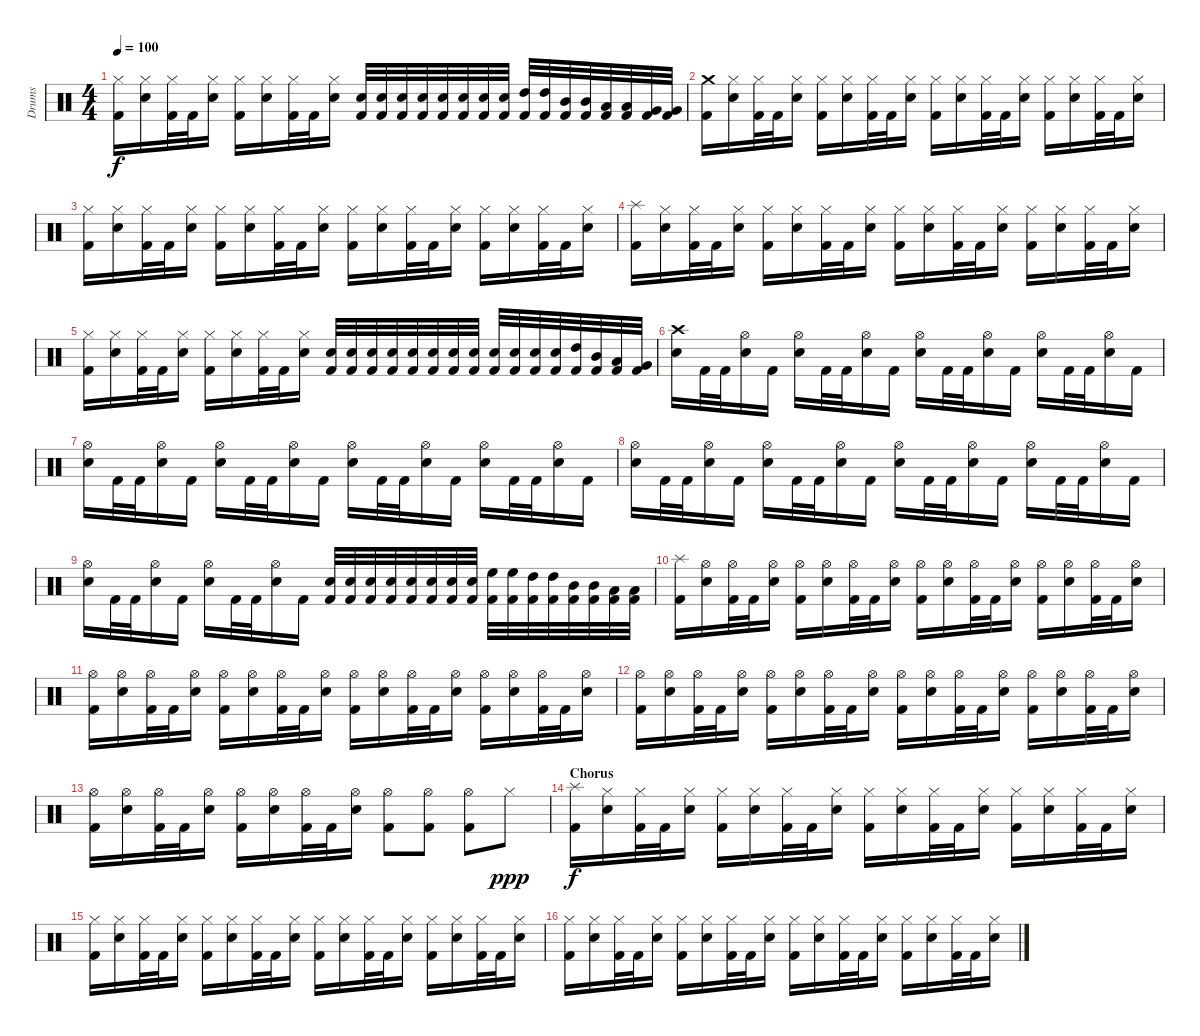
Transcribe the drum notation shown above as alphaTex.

\track ("Drums" "Drums") {instrument percussion}
\staff {score}
\articulation defaults
\ts (4 4)
\tempo 100
\clef neutral
\ks c
("Kick (hit) 2" "Hi-Hat (closed)").16{dy f} ("Electric Snare (hit)" "Hi-Hat (closed)").16 ("Kick (hit) 2" "Hi-Hat (closed)").32 "Kick (hit) 2".32 ("Electric Snare (hit)" "Hi-Hat (closed)").16 ("Kick (hit) 2" "Hi-Hat (closed)").16 ("Electric Snare (hit)" "Hi-Hat (closed)").16 ("Kick (hit) 2" "Hi-Hat (closed)").32 "Kick (hit) 2".32 ("Electric Snare (hit)" "Hi-Hat (closed)").16 ("Kick (hit) 2" "Electric Snare (hit)").32 ("Kick (hit) 2" "Electric Snare (hit)").32 ("Kick (hit) 2" "Electric Snare (hit)").32 ("Kick (hit) 2" "Electric Snare (hit)").32 ("Kick (hit) 2" "Electric Snare (hit)").32 ("Kick (hit) 2" "Electric Snare (hit)").32 ("Kick (hit) 2" "Electric Snare (hit)").32 ("Kick (hit) 2" "Electric Snare (hit)").32 ("Kick (hit) 2" "High Tom (hit)").32 ("Kick (hit) 2" "High Tom (hit)").32 ("Kick (hit) 2" "Mid Tom (hit)").32 ("Kick (hit) 2" "Mid Tom (hit)").32 ("Kick (hit) 2" "Low Tom (hit)").32 ("Kick (hit) 2" "Low Tom (hit)").32 ("Kick (hit) 2" "Very Low Tom (hit)").32 ("Kick (hit) 2" "Very Low Tom (hit)").32 |
("Kick (hit) 2" "Crash medium (hit)").16 ("Electric Snare (hit)" "Hi-Hat (closed)").16 ("Kick (hit) 2" "Hi-Hat (closed)").32 "Kick (hit) 2".32 ("Electric Snare (hit)" "Hi-Hat (closed)").16 ("Kick (hit) 2" "Hi-Hat (closed)").16 ("Electric Snare (hit)" "Hi-Hat (closed)").16 ("Kick (hit) 2" "Hi-Hat (closed)").32 "Kick (hit) 2".32 ("Electric Snare (hit)" "Hi-Hat (closed)").16 ("Kick (hit) 2" "Hi-Hat (closed)").16 ("Electric Snare (hit)" "Hi-Hat (closed)").16 ("Kick (hit) 2" "Hi-Hat (closed)").32 "Kick (hit) 2".32 ("Electric Snare (hit)" "Hi-Hat (closed)").16 ("Kick (hit) 2" "Hi-Hat (closed)").16 ("Electric Snare (hit)" "Hi-Hat (closed)").16 ("Kick (hit) 2" "Hi-Hat (closed)").32 "Kick (hit) 2".32 ("Electric Snare (hit)" "Hi-Hat (closed)").16 |
("Kick (hit) 2" "Hi-Hat (closed)").16 ("Electric Snare (hit)" "Hi-Hat (closed)").16 ("Kick (hit) 2" "Hi-Hat (closed)").32 "Kick (hit) 2".32 ("Electric Snare (hit)" "Hi-Hat (closed)").16 ("Kick (hit) 2" "Hi-Hat (closed)").16 ("Electric Snare (hit)" "Hi-Hat (closed)").16 ("Kick (hit) 2" "Hi-Hat (closed)").32 "Kick (hit) 2".32 ("Electric Snare (hit)" "Hi-Hat (closed)").16 ("Kick (hit) 2" "Hi-Hat (closed)").16 ("Electric Snare (hit)" "Hi-Hat (closed)").16 ("Kick (hit) 2" "Hi-Hat (closed)").32 "Kick (hit) 2".32 ("Electric Snare (hit)" "Hi-Hat (closed)").16 ("Kick (hit) 2" "Hi-Hat (closed)").16 ("Electric Snare (hit)" "Hi-Hat (closed)").16 ("Kick (hit) 2" "Hi-Hat (closed)").32 "Kick (hit) 2".32 ("Electric Snare (hit)" "Hi-Hat (closed)").16 |
("Kick (hit) 2" "Splash (hit)").16 ("Electric Snare (hit)" "Hi-Hat (closed)").16 ("Kick (hit) 2" "Hi-Hat (closed)").32 "Kick (hit) 2".32 ("Electric Snare (hit)" "Hi-Hat (closed)").16 ("Kick (hit) 2" "Hi-Hat (closed)").16 ("Electric Snare (hit)" "Hi-Hat (closed)").16 ("Kick (hit) 2" "Hi-Hat (closed)").32 "Kick (hit) 2".32 ("Electric Snare (hit)" "Hi-Hat (closed)").16 ("Kick (hit) 2" "Hi-Hat (closed)").16 ("Electric Snare (hit)" "Hi-Hat (closed)").16 ("Kick (hit) 2" "Hi-Hat (closed)").32 "Kick (hit) 2".32 ("Electric Snare (hit)" "Hi-Hat (closed)").16 ("Kick (hit) 2" "Hi-Hat (closed)").16 ("Electric Snare (hit)" "Hi-Hat (closed)").16 ("Kick (hit) 2" "Hi-Hat (closed)").32 "Kick (hit) 2".32 ("Electric Snare (hit)" "Hi-Hat (closed)").16 |
("Kick (hit) 2" "Hi-Hat (closed)").16 ("Electric Snare (hit)" "Hi-Hat (closed)").16 ("Kick (hit) 2" "Hi-Hat (closed)").32 "Kick (hit) 2".32 ("Electric Snare (hit)" "Hi-Hat (closed)").16 ("Kick (hit) 2" "Hi-Hat (closed)").16 ("Electric Snare (hit)" "Hi-Hat (closed)").16 ("Kick (hit) 2" "Hi-Hat (closed)").32 "Kick (hit) 2".32 ("Electric Snare (hit)" "Hi-Hat (closed)").16 ("Kick (hit) 2" "Electric Snare (hit)").32 ("Kick (hit) 2" "Electric Snare (hit)").32 ("Kick (hit) 2" "Electric Snare (hit)").32 ("Kick (hit) 2" "Electric Snare (hit)").32 ("Kick (hit) 2" "Electric Snare (hit)").32 ("Kick (hit) 2" "Electric Snare (hit)").32 ("Kick (hit) 2" "Electric Snare (hit)").32 ("Kick (hit) 2" "Electric Snare (hit)").32 ("Kick (hit) 2" "Electric Snare (hit)").32 ("Kick (hit) 2" "Electric Snare (hit)").32 ("Kick (hit) 2" "Electric Snare (hit)").32 ("Kick (hit) 2" "Electric Snare (hit)").32 ("Kick (hit) 2" "High Tom (hit)").32 ("Kick (hit) 2" "Mid Tom (hit)").32 ("Kick (hit) 2" "Low Tom (hit)").32 ("Kick (hit) 2" "Very Low Tom (hit)").32 |
\section ("" "")
("Electric Snare (hit)" "Crash high (hit)").16 "Kick (hit) 2".32 "Kick (hit) 2".32 ("Electric Snare (hit)" "Hi-Hat (open)").16 "Kick (hit) 2".16 ("Electric Snare (hit)" "Hi-Hat (open)").16 "Kick (hit) 2".32 "Kick (hit) 2".32 ("Electric Snare (hit)" "Hi-Hat (open)").16 "Kick (hit) 2".16 ("Electric Snare (hit)" "Hi-Hat (open)").16 "Kick (hit) 2".32 "Kick (hit) 2".32 ("Electric Snare (hit)" "Hi-Hat (open)").16 "Kick (hit) 2".16 ("Electric Snare (hit)" "Hi-Hat (open)").16 "Kick (hit) 2".32 "Kick (hit) 2".32 ("Electric Snare (hit)" "Hi-Hat (open)").16 "Kick (hit) 2".16 |
("Electric Snare (hit)" "Hi-Hat (open)").16 "Kick (hit) 2".32 "Kick (hit) 2".32 ("Electric Snare (hit)" "Hi-Hat (open)").16 "Kick (hit) 2".16 ("Electric Snare (hit)" "Hi-Hat (open)").16 "Kick (hit) 2".32 "Kick (hit) 2".32 ("Electric Snare (hit)" "Hi-Hat (open)").16 "Kick (hit) 2".16 ("Electric Snare (hit)" "Hi-Hat (open)").16 "Kick (hit) 2".32 "Kick (hit) 2".32 ("Electric Snare (hit)" "Hi-Hat (open)").16 "Kick (hit) 2".16 ("Electric Snare (hit)" "Hi-Hat (open)").16 "Kick (hit) 2".32 "Kick (hit) 2".32 ("Electric Snare (hit)" "Hi-Hat (open)").16 "Kick (hit) 2".16 |
("Electric Snare (hit)" "Hi-Hat (open)").16 "Kick (hit) 2".32 "Kick (hit) 2".32 ("Electric Snare (hit)" "Hi-Hat (open)").16 "Kick (hit) 2".16 ("Electric Snare (hit)" "Hi-Hat (open)").16 "Kick (hit) 2".32 "Kick (hit) 2".32 ("Electric Snare (hit)" "Hi-Hat (open)").16 "Kick (hit) 2".16 ("Electric Snare (hit)" "Hi-Hat (open)").16 "Kick (hit) 2".32 "Kick (hit) 2".32 ("Electric Snare (hit)" "Hi-Hat (open)").16 "Kick (hit) 2".16 ("Electric Snare (hit)" "Hi-Hat (open)").16 "Kick (hit) 2".32 "Kick (hit) 2".32 ("Electric Snare (hit)" "Hi-Hat (open)").16 "Kick (hit) 2".16 |
("Electric Snare (hit)" "Hi-Hat (open)").16 "Kick (hit) 2".32 "Kick (hit) 2".32 ("Electric Snare (hit)" "Hi-Hat (open)").16 "Kick (hit) 2".16 ("Electric Snare (hit)" "Hi-Hat (open)").16 "Kick (hit) 2".32 "Kick (hit) 2".32 ("Electric Snare (hit)" "Hi-Hat (open)").16 "Kick (hit) 2".16 ("Kick (hit) 2" "Electric Snare (hit)").32 ("Kick (hit) 2" "Electric Snare (hit)").32 ("Kick (hit) 2" "Electric Snare (hit)").32 ("Kick (hit) 2" "Electric Snare (hit)").32 ("Kick (hit) 2" "Electric Snare (hit)").32 ("Kick (hit) 2" "Electric Snare (hit)").32 ("Kick (hit) 2" "Electric Snare (hit)").32 ("Kick (hit) 2" "Electric Snare (hit)").32 ("Kick (hit) 2" "High Floor Tom (hit)").32 ("Kick (hit) 2" "High Floor Tom (hit)").32 ("Kick (hit) 2" "High Tom (hit)").32 ("Kick (hit) 2" "High Tom (hit)").32 ("Kick (hit) 2" "Mid Tom (hit)").32 ("Kick (hit) 2" "Mid Tom (hit)").32 ("Kick (hit) 2" "Low Tom (hit)").32 ("Kick (hit) 2" "Low Tom (hit)").32 |
("Kick (hit) 2" "Splash (hit)").16 ("Electric Snare (hit)" "Hi-Hat (open)").16 ("Kick (hit) 2" "Hi-Hat (open)").32 "Kick (hit) 2".32 ("Electric Snare (hit)" "Hi-Hat (open)").16 ("Kick (hit) 2" "Hi-Hat (open)").16 ("Electric Snare (hit)" "Hi-Hat (open)").16 ("Kick (hit) 2" "Hi-Hat (open)").32 "Kick (hit) 2".32 ("Electric Snare (hit)" "Hi-Hat (open)").16 ("Kick (hit) 2" "Hi-Hat (open)").16 ("Electric Snare (hit)" "Hi-Hat (open)").16 ("Kick (hit) 2" "Hi-Hat (open)").32 "Kick (hit) 2".32 ("Electric Snare (hit)" "Hi-Hat (open)").16 ("Kick (hit) 2" "Hi-Hat (open)").16 ("Electric Snare (hit)" "Hi-Hat (open)").16 ("Kick (hit) 2" "Hi-Hat (open)").32 "Kick (hit) 2".32 ("Electric Snare (hit)" "Hi-Hat (open)").16 |
("Kick (hit) 2" "Hi-Hat (open)").16 ("Electric Snare (hit)" "Hi-Hat (open)").16 ("Kick (hit) 2" "Hi-Hat (open)").32 "Kick (hit) 2".32 ("Electric Snare (hit)" "Hi-Hat (open)").16 ("Kick (hit) 2" "Hi-Hat (open)").16 ("Electric Snare (hit)" "Hi-Hat (open)").16 ("Kick (hit) 2" "Hi-Hat (open)").32 "Kick (hit) 2".32 ("Electric Snare (hit)" "Hi-Hat (open)").16 ("Kick (hit) 2" "Hi-Hat (open)").16 ("Electric Snare (hit)" "Hi-Hat (open)").16 ("Kick (hit) 2" "Hi-Hat (open)").32 "Kick (hit) 2".32 ("Electric Snare (hit)" "Hi-Hat (open)").16 ("Kick (hit) 2" "Hi-Hat (open)").16 ("Electric Snare (hit)" "Hi-Hat (open)").16 ("Kick (hit) 2" "Hi-Hat (open)").32 "Kick (hit) 2".32 ("Electric Snare (hit)" "Hi-Hat (open)").16 |
("Kick (hit) 2" "Hi-Hat (open)").16 ("Electric Snare (hit)" "Hi-Hat (open)").16 ("Kick (hit) 2" "Hi-Hat (open)").32 "Kick (hit) 2".32 ("Electric Snare (hit)" "Hi-Hat (open)").16 ("Kick (hit) 2" "Hi-Hat (open)").16 ("Electric Snare (hit)" "Hi-Hat (open)").16 ("Kick (hit) 2" "Hi-Hat (open)").32 "Kick (hit) 2".32 ("Electric Snare (hit)" "Hi-Hat (open)").16 ("Kick (hit) 2" "Hi-Hat (open)").16 ("Electric Snare (hit)" "Hi-Hat (open)").16 ("Kick (hit) 2" "Hi-Hat (open)").32 "Kick (hit) 2".32 ("Electric Snare (hit)" "Hi-Hat (open)").16 ("Kick (hit) 2" "Hi-Hat (open)").16 ("Electric Snare (hit)" "Hi-Hat (open)").16 ("Kick (hit) 2" "Hi-Hat (open)").32 "Kick (hit) 2".32 ("Electric Snare (hit)" "Hi-Hat (open)").16 |
("Kick (hit) 2" "Hi-Hat (open)").16 ("Electric Snare (hit)" "Hi-Hat (open)").16 ("Kick (hit) 2" "Hi-Hat (open)").32 "Kick (hit) 2".32 ("Electric Snare (hit)" "Hi-Hat (open)").16 ("Kick (hit) 2" "Hi-Hat (open)").16 ("Electric Snare (hit)" "Hi-Hat (open)").16 ("Kick (hit) 2" "Hi-Hat (open)").32 "Kick (hit) 2".32 ("Electric Snare (hit)" "Hi-Hat (open)").16 ("Kick (hit) 2" "Hi-Hat (open)").8 ("Kick (hit) 2" "Hi-Hat (open)").8 ("Kick (hit) 2" "Hi-Hat (open)").8 "Hi-Hat (closed)".8{dy ppp} |
\section ("" "Chorus")
("Kick (hit) 2" "Splash (hit)").16{dy f} ("Electric Snare (hit)" "Hi-Hat (closed)").16 ("Kick (hit) 2" "Hi-Hat (closed)").32 "Kick (hit) 2".32 ("Electric Snare (hit)" "Hi-Hat (closed)").16 ("Kick (hit) 2" "Hi-Hat (closed)").16 ("Electric Snare (hit)" "Hi-Hat (closed)").16 ("Kick (hit) 2" "Hi-Hat (closed)").32 "Kick (hit) 2".32 ("Electric Snare (hit)" "Hi-Hat (closed)").16 ("Kick (hit) 2" "Hi-Hat (closed)").16 ("Electric Snare (hit)" "Hi-Hat (closed)").16 ("Kick (hit) 2" "Hi-Hat (closed)").32 "Kick (hit) 2".32 ("Electric Snare (hit)" "Hi-Hat (closed)").16 ("Kick (hit) 2" "Hi-Hat (closed)").16 ("Electric Snare (hit)" "Hi-Hat (closed)").16 ("Kick (hit) 2" "Hi-Hat (closed)").32 "Kick (hit) 2".32 ("Electric Snare (hit)" "Hi-Hat (closed)").16 |
("Kick (hit) 2" "Hi-Hat (closed)").16 ("Electric Snare (hit)" "Hi-Hat (closed)").16 ("Kick (hit) 2" "Hi-Hat (closed)").32 "Kick (hit) 2".32 ("Electric Snare (hit)" "Hi-Hat (closed)").16 ("Kick (hit) 2" "Hi-Hat (closed)").16 ("Electric Snare (hit)" "Hi-Hat (closed)").16 ("Kick (hit) 2" "Hi-Hat (closed)").32 "Kick (hit) 2".32 ("Electric Snare (hit)" "Hi-Hat (closed)").16 ("Kick (hit) 2" "Hi-Hat (closed)").16 ("Electric Snare (hit)" "Hi-Hat (closed)").16 ("Kick (hit) 2" "Hi-Hat (closed)").32 "Kick (hit) 2".32 ("Electric Snare (hit)" "Hi-Hat (closed)").16 ("Kick (hit) 2" "Hi-Hat (closed)").16 ("Electric Snare (hit)" "Hi-Hat (closed)").16 ("Kick (hit) 2" "Hi-Hat (closed)").32 "Kick (hit) 2".32 ("Electric Snare (hit)" "Hi-Hat (closed)").16 |
("Kick (hit) 2" "Hi-Hat (closed)").16 ("Electric Snare (hit)" "Hi-Hat (closed)").16 ("Kick (hit) 2" "Hi-Hat (closed)").32 "Kick (hit) 2".32 ("Electric Snare (hit)" "Hi-Hat (closed)").16 ("Kick (hit) 2" "Hi-Hat (closed)").16 ("Electric Snare (hit)" "Hi-Hat (closed)").16 ("Kick (hit) 2" "Hi-Hat (closed)").32 "Kick (hit) 2".32 ("Electric Snare (hit)" "Hi-Hat (closed)").16 ("Kick (hit) 2" "Hi-Hat (closed)").16 ("Electric Snare (hit)" "Hi-Hat (closed)").16 ("Kick (hit) 2" "Hi-Hat (closed)").32 "Kick (hit) 2".32 ("Electric Snare (hit)" "Hi-Hat (closed)").16 ("Kick (hit) 2" "Hi-Hat (closed)").16 ("Electric Snare (hit)" "Hi-Hat (closed)").16 ("Kick (hit) 2" "Hi-Hat (closed)").32 "Kick (hit) 2".32 ("Electric Snare (hit)" "Hi-Hat (closed)").16
